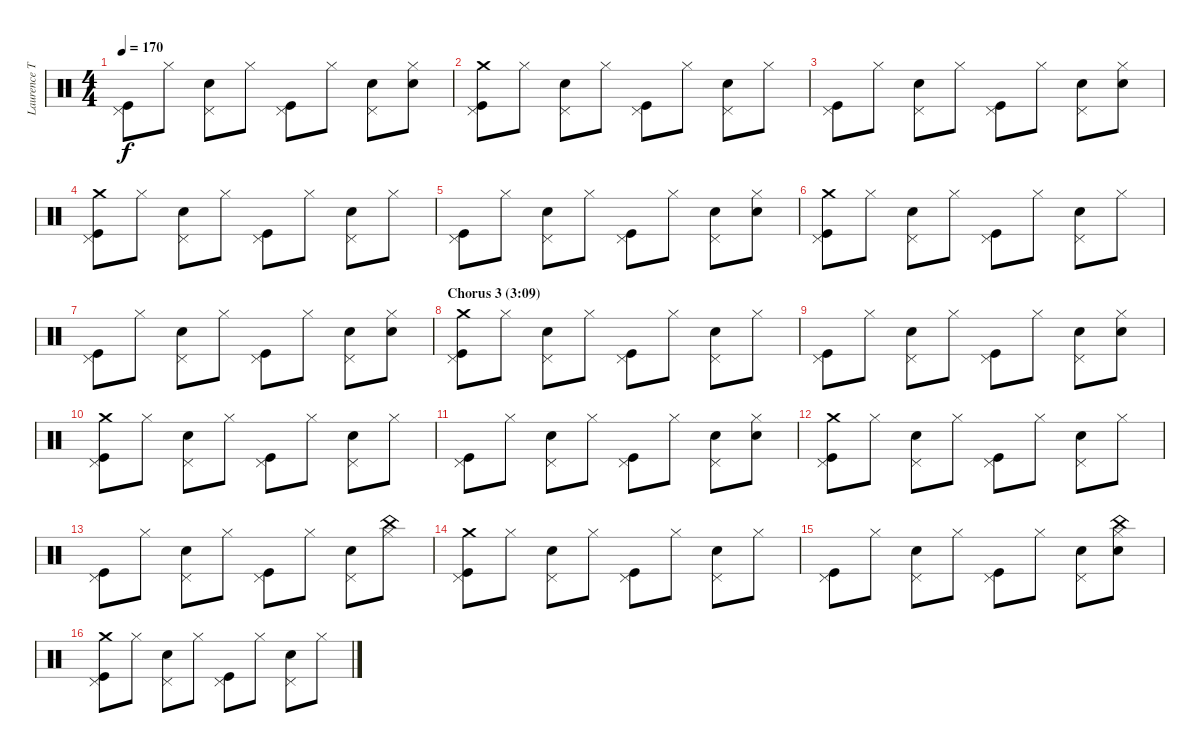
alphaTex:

\track ("Laurence Tolhurst (drums)" "Laurence T") {instrument percussion}
\staff {score}
\articulation defaults
\ts (4 4)
\tempo 170
\clef neutral
\ks c
("Pedal Hi-Hat (hit)" "Kick (hit)").8{dy f} "Hi-Hat (closed)".8 ("Pedal Hi-Hat (hit)" "Snare (hit) 2").8 "Hi-Hat (closed)".8 ("Pedal Hi-Hat (hit)" "Kick (hit)").8 "Hi-Hat (closed)".8 ("Pedal Hi-Hat (hit)" "Snare (hit) 2").8 ("Hi-Hat (closed)" "Snare (hit) 2").8 |
("Crash medium (hit)" "Pedal Hi-Hat (hit)" "Kick (hit)").8 "Hi-Hat (closed)".8 ("Pedal Hi-Hat (hit)" "Snare (hit) 2").8 "Hi-Hat (closed)".8 ("Pedal Hi-Hat (hit)" "Kick (hit)").8 "Hi-Hat (closed)".8 ("Pedal Hi-Hat (hit)" "Snare (hit) 2").8 "Hi-Hat (closed)".8 |
("Pedal Hi-Hat (hit)" "Kick (hit)").8 "Hi-Hat (closed)".8 ("Pedal Hi-Hat (hit)" "Snare (hit) 2").8 "Hi-Hat (closed)".8 ("Pedal Hi-Hat (hit)" "Kick (hit)").8 "Hi-Hat (closed)".8 ("Pedal Hi-Hat (hit)" "Snare (hit) 2").8 ("Hi-Hat (closed)" "Snare (hit) 2").8 |
("Crash medium (hit)" "Pedal Hi-Hat (hit)" "Kick (hit)").8 "Hi-Hat (closed)".8 ("Pedal Hi-Hat (hit)" "Snare (hit) 2").8 "Hi-Hat (closed)".8 ("Pedal Hi-Hat (hit)" "Kick (hit)").8 "Hi-Hat (closed)".8 ("Pedal Hi-Hat (hit)" "Snare (hit) 2").8 "Hi-Hat (closed)".8 |
("Pedal Hi-Hat (hit)" "Kick (hit)").8 "Hi-Hat (closed)".8 ("Pedal Hi-Hat (hit)" "Snare (hit) 2").8 "Hi-Hat (closed)".8 ("Pedal Hi-Hat (hit)" "Kick (hit)").8 "Hi-Hat (closed)".8 ("Pedal Hi-Hat (hit)" "Snare (hit) 2").8 ("Hi-Hat (closed)" "Snare (hit) 2").8 |
("Crash medium (hit)" "Pedal Hi-Hat (hit)" "Kick (hit)").8 "Hi-Hat (closed)".8 ("Pedal Hi-Hat (hit)" "Snare (hit) 2").8 "Hi-Hat (closed)".8 ("Pedal Hi-Hat (hit)" "Kick (hit)").8 "Hi-Hat (closed)".8 ("Pedal Hi-Hat (hit)" "Snare (hit) 2").8 "Hi-Hat (closed)".8 |
("Pedal Hi-Hat (hit)" "Kick (hit)").8 "Hi-Hat (closed)".8 ("Pedal Hi-Hat (hit)" "Snare (hit) 2").8 "Hi-Hat (closed)".8 ("Pedal Hi-Hat (hit)" "Kick (hit)").8 "Hi-Hat (closed)".8 ("Pedal Hi-Hat (hit)" "Snare (hit) 2").8 ("Hi-Hat (closed)" "Snare (hit) 2").8 |
\section ("" "Chorus 3 (3:09)")
("Crash medium (hit)" "Pedal Hi-Hat (hit)" "Kick (hit)").8 "Hi-Hat (closed)".8 ("Pedal Hi-Hat (hit)" "Snare (hit) 2").8 "Hi-Hat (closed)".8 ("Pedal Hi-Hat (hit)" "Kick (hit)").8 "Hi-Hat (closed)".8 ("Pedal Hi-Hat (hit)" "Snare (hit) 2").8 "Hi-Hat (closed)".8 |
("Pedal Hi-Hat (hit)" "Kick (hit)").8 "Hi-Hat (closed)".8 ("Pedal Hi-Hat (hit)" "Snare (hit) 2").8 "Hi-Hat (closed)".8 ("Pedal Hi-Hat (hit)" "Kick (hit)").8 "Hi-Hat (closed)".8 ("Pedal Hi-Hat (hit)" "Snare (hit) 2").8 ("Hi-Hat (closed)" "Snare (hit) 2").8 |
("Crash medium (hit)" "Pedal Hi-Hat (hit)" "Kick (hit)").8 "Hi-Hat (closed)".8 ("Pedal Hi-Hat (hit)" "Snare (hit) 2").8 "Hi-Hat (closed)".8 ("Pedal Hi-Hat (hit)" "Kick (hit)").8 "Hi-Hat (closed)".8 ("Pedal Hi-Hat (hit)" "Snare (hit) 2").8 "Hi-Hat (closed)".8 |
("Pedal Hi-Hat (hit)" "Kick (hit)").8 "Hi-Hat (closed)".8 ("Pedal Hi-Hat (hit)" "Snare (hit) 2").8 "Hi-Hat (closed)".8 ("Pedal Hi-Hat (hit)" "Kick (hit)").8 "Hi-Hat (closed)".8 ("Pedal Hi-Hat (hit)" "Snare (hit) 2").8 ("Hi-Hat (closed)" "Snare (hit) 2").8 |
("Crash medium (hit)" "Pedal Hi-Hat (hit)" "Kick (hit)").8 "Hi-Hat (closed)".8 ("Pedal Hi-Hat (hit)" "Snare (hit) 2").8 "Hi-Hat (closed)".8 ("Pedal Hi-Hat (hit)" "Kick (hit)").8 "Hi-Hat (closed)".8 ("Pedal Hi-Hat (hit)" "Snare (hit) 2").8 "Hi-Hat (closed)".8 |
("Pedal Hi-Hat (hit)" "Kick (hit)").8 "Hi-Hat (closed)".8 ("Pedal Hi-Hat (hit)" "Snare (hit) 2").8 "Hi-Hat (closed)".8 ("Pedal Hi-Hat (hit)" "Kick (hit)").8 "Hi-Hat (closed)".8 ("Pedal Hi-Hat (hit)" "Snare (hit) 2").8 ("China (hit)" "Hi-Hat (closed)").8 |
("Crash medium (hit)" "Pedal Hi-Hat (hit)" "Kick (hit)").8 "Hi-Hat (closed)".8 ("Pedal Hi-Hat (hit)" "Snare (hit) 2").8 "Hi-Hat (closed)".8 ("Pedal Hi-Hat (hit)" "Kick (hit)").8 "Hi-Hat (closed)".8 ("Pedal Hi-Hat (hit)" "Snare (hit) 2").8 "Hi-Hat (closed)".8 |
("Pedal Hi-Hat (hit)" "Kick (hit)").8 "Hi-Hat (closed)".8 ("Pedal Hi-Hat (hit)" "Snare (hit) 2").8 "Hi-Hat (closed)".8 ("Pedal Hi-Hat (hit)" "Kick (hit)").8 "Hi-Hat (closed)".8 ("Pedal Hi-Hat (hit)" "Snare (hit) 2").8 ("China (hit)" "Hi-Hat (closed)" "Snare (hit) 2").8 |
("Crash medium (hit)" "Pedal Hi-Hat (hit)" "Kick (hit)").8 "Hi-Hat (closed)".8 ("Pedal Hi-Hat (hit)" "Snare (hit) 2").8 "Hi-Hat (closed)".8 ("Pedal Hi-Hat (hit)" "Kick (hit)").8 "Hi-Hat (closed)".8 ("Pedal Hi-Hat (hit)" "Snare (hit) 2").8 "Hi-Hat (closed)".8
